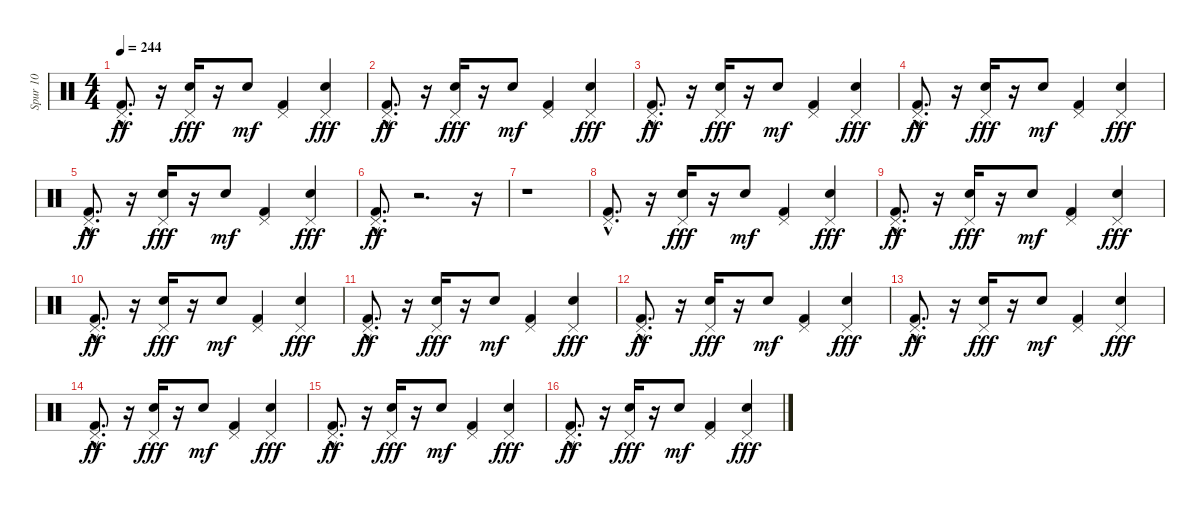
\track ("Spur 10" "Spur 10") {instrument percussion}
\staff {score}
\articulation defaults
\ts (4 4)
\tempo 244
\clef neutral
\ks c
("Pedal Hi-Hat (hit)" "Kick (hit) 2"{hac}).8{d dy ff} r.16 ("Pedal Hi-Hat (hit)" "Electric Snare (hit)").16{dy fff} r.16 "Electric Snare (hit)".8{dy mf} ("Pedal Hi-Hat (hit)" "Kick (hit) 2").4 ("Pedal Hi-Hat (hit)" "Electric Snare (hit)").4{dy fff} |
("Pedal Hi-Hat (hit)" "Kick (hit) 2"{hac}).8{d dy ff} r.16 ("Pedal Hi-Hat (hit)" "Electric Snare (hit)").16{dy fff} r.16 "Electric Snare (hit)".8{dy mf} ("Pedal Hi-Hat (hit)" "Kick (hit) 2").4 ("Pedal Hi-Hat (hit)" "Electric Snare (hit)").4{dy fff} |
("Pedal Hi-Hat (hit)" "Kick (hit) 2"{hac}).8{d dy ff} r.16 ("Pedal Hi-Hat (hit)" "Electric Snare (hit)").16{dy fff} r.16 "Electric Snare (hit)".8{dy mf} ("Pedal Hi-Hat (hit)" "Kick (hit) 2").4 ("Pedal Hi-Hat (hit)" "Electric Snare (hit)").4{dy fff} |
("Pedal Hi-Hat (hit)" "Kick (hit) 2"{hac}).8{d dy ff} r.16 ("Pedal Hi-Hat (hit)" "Electric Snare (hit)").16{dy fff} r.16 "Electric Snare (hit)".8{dy mf} ("Pedal Hi-Hat (hit)" "Kick (hit) 2").4 ("Pedal Hi-Hat (hit)" "Electric Snare (hit)").4{dy fff} |
("Pedal Hi-Hat (hit)" "Kick (hit) 2"{hac}).8{d dy ff} r.16 ("Pedal Hi-Hat (hit)" "Electric Snare (hit)").16{dy fff} r.16 "Electric Snare (hit)".8{dy mf} ("Pedal Hi-Hat (hit)" "Kick (hit) 2").4 ("Pedal Hi-Hat (hit)" "Electric Snare (hit)").4{dy fff} |
("Pedal Hi-Hat (hit)" "Kick (hit) 2"{hac}).8{d dy ff} r.2{d} r.16 |
r.1 |
("Pedal Hi-Hat (hit)" "Kick (hit) 2"{hac}).8{d} r.16 ("Pedal Hi-Hat (hit)" "Electric Snare (hit)").16{dy fff} r.16 "Electric Snare (hit)".8{dy mf} ("Pedal Hi-Hat (hit)" "Kick (hit) 2").4 ("Pedal Hi-Hat (hit)" "Electric Snare (hit)").4{dy fff} |
("Pedal Hi-Hat (hit)" "Kick (hit) 2"{hac}).8{d dy ff} r.16 ("Pedal Hi-Hat (hit)" "Electric Snare (hit)").16{dy fff} r.16 "Electric Snare (hit)".8{dy mf} ("Pedal Hi-Hat (hit)" "Kick (hit) 2").4 ("Pedal Hi-Hat (hit)" "Electric Snare (hit)").4{dy fff} |
("Pedal Hi-Hat (hit)" "Kick (hit) 2"{hac}).8{d dy ff} r.16 ("Pedal Hi-Hat (hit)" "Electric Snare (hit)").16{dy fff} r.16 "Electric Snare (hit)".8{dy mf} ("Pedal Hi-Hat (hit)" "Kick (hit) 2").4 ("Pedal Hi-Hat (hit)" "Electric Snare (hit)").4{dy fff} |
("Pedal Hi-Hat (hit)" "Kick (hit) 2"{hac}).8{d dy ff} r.16 ("Pedal Hi-Hat (hit)" "Electric Snare (hit)").16{dy fff} r.16 "Electric Snare (hit)".8{dy mf} ("Pedal Hi-Hat (hit)" "Kick (hit) 2").4 ("Pedal Hi-Hat (hit)" "Electric Snare (hit)").4{dy fff} |
("Pedal Hi-Hat (hit)" "Kick (hit) 2"{hac}).8{d dy ff} r.16 ("Pedal Hi-Hat (hit)" "Electric Snare (hit)").16{dy fff} r.16 "Electric Snare (hit)".8{dy mf} ("Pedal Hi-Hat (hit)" "Kick (hit) 2").4 ("Pedal Hi-Hat (hit)" "Electric Snare (hit)").4{dy fff} |
("Pedal Hi-Hat (hit)" "Kick (hit) 2"{hac}).8{d dy ff} r.16 ("Pedal Hi-Hat (hit)" "Electric Snare (hit)").16{dy fff} r.16 "Electric Snare (hit)".8{dy mf} ("Pedal Hi-Hat (hit)" "Kick (hit) 2").4 ("Pedal Hi-Hat (hit)" "Electric Snare (hit)").4{dy fff} |
("Pedal Hi-Hat (hit)" "Kick (hit) 2"{hac}).8{d dy ff} r.16 ("Pedal Hi-Hat (hit)" "Electric Snare (hit)").16{dy fff} r.16 "Electric Snare (hit)".8{dy mf} ("Pedal Hi-Hat (hit)" "Kick (hit) 2").4 ("Pedal Hi-Hat (hit)" "Electric Snare (hit)").4{dy fff} |
("Pedal Hi-Hat (hit)" "Kick (hit) 2"{hac}).8{d dy ff} r.16 ("Pedal Hi-Hat (hit)" "Electric Snare (hit)").16{dy fff} r.16 "Electric Snare (hit)".8{dy mf} ("Pedal Hi-Hat (hit)" "Kick (hit) 2").4 ("Pedal Hi-Hat (hit)" "Electric Snare (hit)").4{dy fff} |
("Pedal Hi-Hat (hit)" "Kick (hit) 2"{hac}).8{d dy ff} r.16 ("Pedal Hi-Hat (hit)" "Electric Snare (hit)").16{dy fff} r.16 "Electric Snare (hit)".8{dy mf} ("Pedal Hi-Hat (hit)" "Kick (hit) 2").4 ("Pedal Hi-Hat (hit)" "Electric Snare (hit)").4{dy fff}
